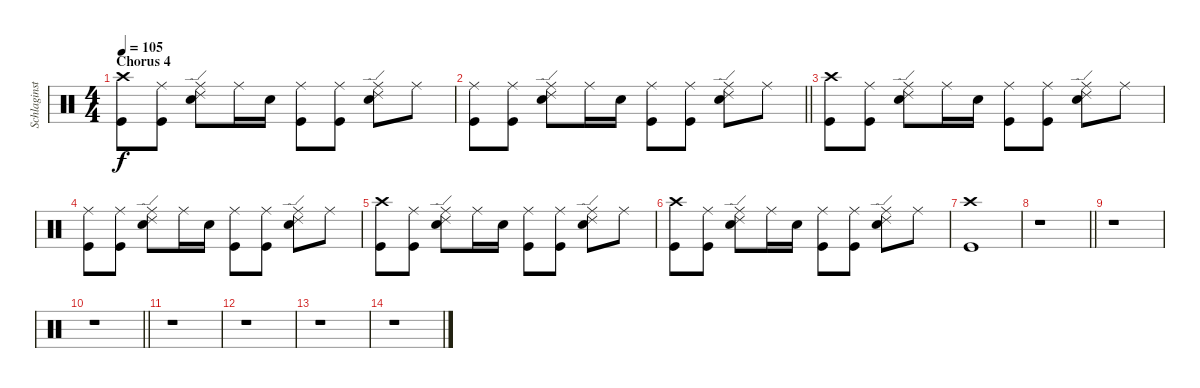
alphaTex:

\track ("Schlaginstrumente - Auswahl" "Schlaginst") {instrument percussion}
\staff {score}
\articulation defaults
\ts (4 4)
\section ("" "Chorus 4")
\tempo 105
\clef neutral
\ks c
("Crash high (hit)" "Kick (hit)").8{dy f} ("Ride (middle)" "Kick (hit)").8 ("Ride (middle)" "Ride (edge) 2" "Snare (hit) 2").8 "Ride (middle)".16 "Snare (hit) 2".16 ("Ride (middle)" "Kick (hit)").8 ("Ride (middle)" "Kick (hit)").8 ("Ride (middle)" "Ride (edge) 2" "Snare (hit) 2").8 "Ride (middle)".8 |
\barLineRight lightlight
("Ride (middle)" "Kick (hit)").8 ("Ride (middle)" "Kick (hit)").8 ("Ride (middle)" "Ride (edge) 2" "Snare (hit) 2").8 "Ride (middle)".16 "Snare (hit) 2".16 ("Ride (middle)" "Kick (hit)").8 ("Ride (middle)" "Kick (hit)").8 ("Ride (middle)" "Ride (edge) 2" "Snare (hit) 2").8 "Ride (middle)".8 |
("Crash high (hit)" "Kick (hit)").8 ("Ride (middle)" "Kick (hit)").8 ("Ride (middle)" "Ride (edge) 2" "Snare (hit) 2").8 "Ride (middle)".16 "Snare (hit) 2".16 ("Ride (middle)" "Kick (hit)").8 ("Ride (middle)" "Kick (hit)").8 ("Ride (middle)" "Ride (edge) 2" "Snare (hit) 2").8 "Ride (middle)".8 |
("Ride (middle)" "Kick (hit)").8 ("Ride (middle)" "Kick (hit)").8 ("Ride (middle)" "Ride (edge) 2" "Snare (hit) 2").8 "Ride (middle)".16 "Snare (hit) 2".16 ("Ride (middle)" "Kick (hit)").8 ("Ride (middle)" "Kick (hit)").8 ("Ride (middle)" "Ride (edge) 2" "Snare (hit) 2").8 "Ride (middle)".8 |
("Crash high (hit)" "Kick (hit)").8 ("Ride (middle)" "Kick (hit)").8 ("Ride (middle)" "Ride (edge) 2" "Snare (hit) 2").8 "Ride (middle)".16 "Snare (hit) 2".16 ("Ride (middle)" "Kick (hit)").8 ("Ride (middle)" "Kick (hit)").8 ("Ride (middle)" "Ride (edge) 2" "Snare (hit) 2").8 "Ride (middle)".8 |
("Crash high (hit)" "Kick (hit)").8 ("Ride (middle)" "Kick (hit)").8 ("Ride (middle)" "Ride (edge) 2" "Snare (hit) 2").8 "Ride (middle)".16 "Snare (hit) 2".16 ("Ride (middle)" "Kick (hit)").8 ("Ride (middle)" "Kick (hit)").8 ("Ride (middle)" "Ride (edge) 2" "Snare (hit) 2").8 "Ride (middle)".8 |
("Crash high (hit)" "Kick (hit)").1 |
\barLineRight lightlight
r.1 |
r.1 |
\barLineRight lightlight
r.1 |
r.1 |
r.1 |
r.1 |
r.1
